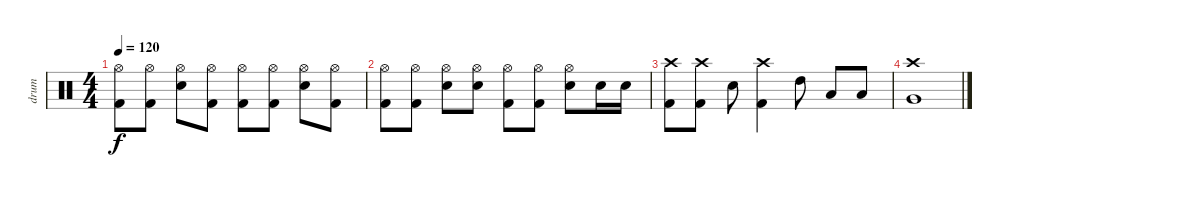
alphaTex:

\track ("drum" "drum") {instrument percussion}
\staff {score}
\articulation defaults
\ts (4 4)
\tempo 120
\clef neutral
\ks c
("Hi-Hat (open)" "Kick (hit) 2").8{dy f} ("Hi-Hat (open)" "Kick (hit) 2").8 ("Hi-Hat (open)" "Snare (hit) 2").8 ("Hi-Hat (open)" "Kick (hit) 2").8 ("Hi-Hat (open)" "Kick (hit) 2").8 ("Hi-Hat (open)" "Kick (hit) 2").8 ("Hi-Hat (open)" "Snare (hit) 2").8 ("Hi-Hat (open)" "Kick (hit) 2").8 |
("Hi-Hat (open)" "Kick (hit) 2").8 ("Hi-Hat (open)" "Kick (hit) 2").8 ("Hi-Hat (open)" "Snare (hit) 2").8 ("Hi-Hat (open)" "Snare (hit) 2").8 ("Hi-Hat (open)" "Kick (hit) 2").8 ("Hi-Hat (open)" "Kick (hit) 2").8 ("Hi-Hat (open)" "Snare (hit) 2").8 "Snare (hit) 2".16 "Snare (hit) 2".16 |
("Crash high (hit)" "Kick (hit) 2").8 ("Crash high (hit)" "Kick (hit) 2").8 "Snare (hit) 2".8 ("Crash high (hit)" "Kick (hit) 2").4 "High Tom (hit)".8 "Low Tom (hit)".8 "Low Tom (hit)".8 |
("Crash high (hit)" "Very Low Tom (hit)").1
